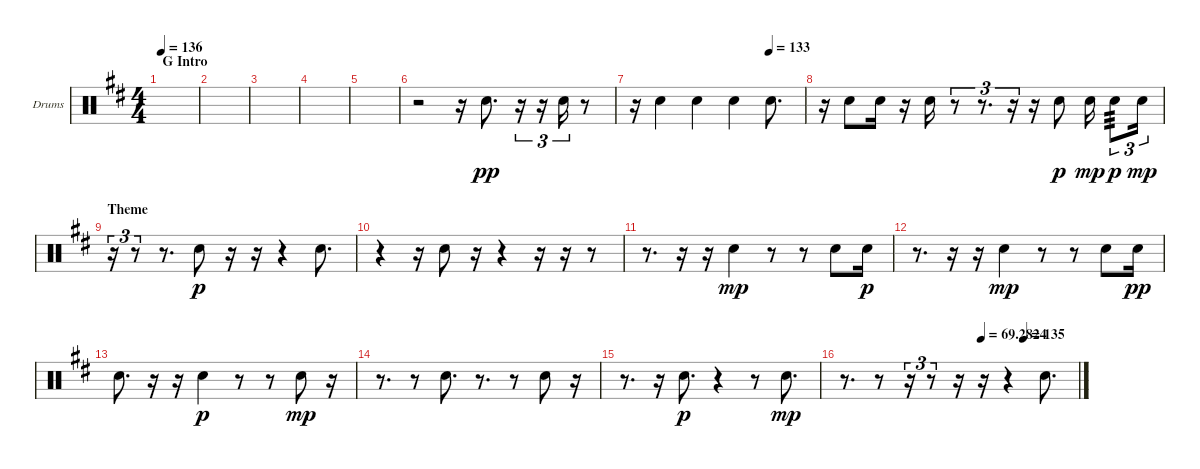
\bracketExtendMode groupsimilarinstruments
\firstSystemTrackNameOrientation horizontal
\otherSystemsTrackNameOrientation horizontal
\track ("Snare" "Drums") {instrument percussion}
\staff {score}
\articulation defaults
\ts (4 4)
\section ("" "G Intro")
\tempo 136
\clef neutral
\ks d
|
|
|
|
|
r.2 r.16 "Snare (hit) 2".8{d dy pp} r.16{tu (3 2)} r.16{tu (3 2)} "Snare (hit) 2".16{tu (3 2)} r.8 |
\tempo (133 0.79375)
r.16 "Snare (hit) 2".4 "Snare (hit) 2".4 "Snare (hit) 2".4 "Snare (hit) 2".8{d} |
r.16 "Snare (hit) 2".8 "Snare (hit) 2".16 r.16 "Snare (hit) 2".16 r.8{tu (3 2)} r.8{d tu (3 2)} r.16{tu (3 2)} r.16 "Snare (hit) 2".8{dy p} "Snare (hit) 2".16{dy mp} "Snare (hit) 2".8{tu (3 2) tp 3 dy p} "Snare (hit) 2".16{tu (3 2) dy mp} |
\section ("" "Theme")
r.16{tu (3 2)} r.8{tu (3 2)} r.8{d} "Snare (hit) 2".8{dy p} r.16 r.16 r.4 "Snare (hit) 2".8{d} |
r.4 r.16 "Snare (hit) 2".8 r.16 r.4 r.16 r.16 r.8 |
r.8{d} r.16 r.16 "Snare (hit) 2".4{dy mp} r.8 r.8 "Snare (hit) 2".8 "Snare (hit) 2".16{dy p} |
r.8{d} r.16 r.16 "Snare (hit) 2".4{dy mp} r.8 r.8 "Snare (hit) 2".8 "Snare (hit) 2".16{dy pp} |
"Snare (hit) 2".8{d} r.16 r.16 "Snare (hit) 2".4{dy p} r.8 r.8 "Snare (hit) 2".8{dy mp} r.16 |
r.8{d} r.8 "Snare (hit) 2".8{d} r.8{d} r.8 "Snare (hit) 2".8 r.16 |
r.8{d} r.16 "Snare (hit) 2".8{d dy p} r.4 r.8 "Snare (hit) 2".8{d dy mp} |
\tempo (69.2824 0.5875)
\tempo (135 0.76875)
r.8{d} r.8 r.16{tu (3 2)} r.8{tu (3 2)} r.16 r.16 r.4 "Snare (hit) 2".8{d}
